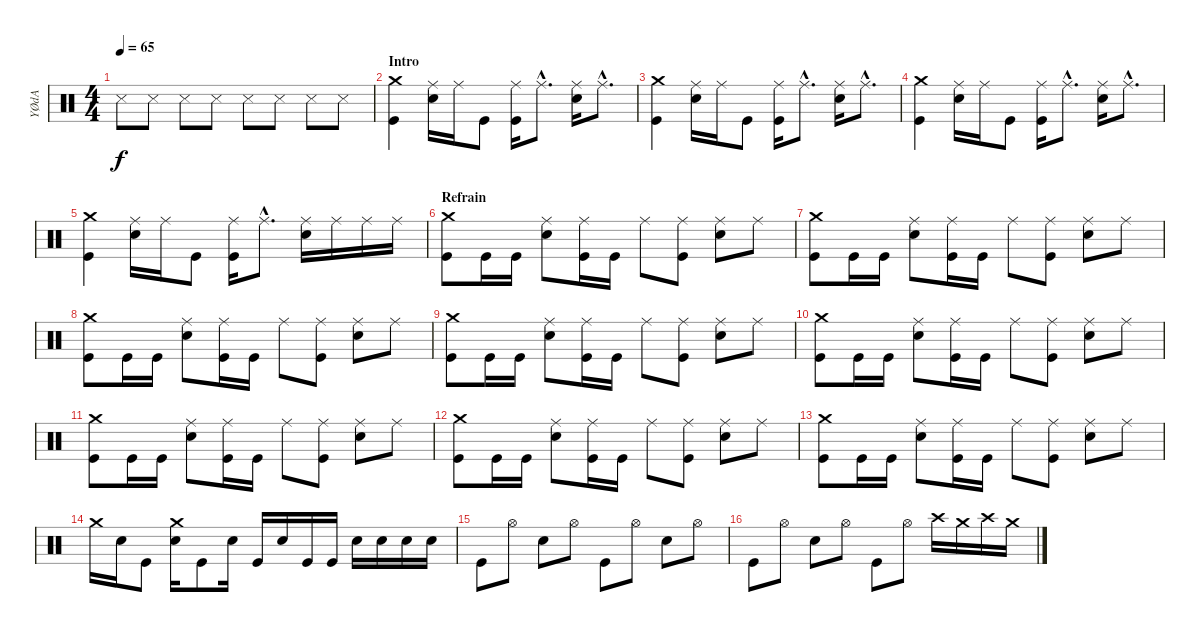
\track ("YØdA" "YØdA") {instrument percussion}
\staff {score}
\articulation defaults
\ts (4 4)
\tempo 65
\clef neutral
\ks c "Snare (side stick) 3".8{dy f} "Snare (side stick) 3".8 "Snare (side stick) 3".8 "Snare (side stick) 3".8 "Snare (side stick) 3".8 "Snare (side stick) 3".8 "Snare (side stick) 3".8 "Snare (side stick) 3".8
|
\section ("" "Intro")
("Crash medium (hit)" "Kick (hit)").4 ("Ride (middle)" "Electric Snare (hit)").16 "Ride (middle)".16 "Kick (hit)".8 ("Ride (middle)" "Kick (hit)").16 "Ride (middle)"{hac}.8{d} ("Ride (middle)" "Electric Snare (hit)").16 "Ride (middle)"{hac}.8{d} |
("Crash medium (hit)" "Kick (hit)").4 ("Ride (middle)" "Electric Snare (hit)").16 "Ride (middle)".16 "Kick (hit)".8 ("Ride (middle)" "Kick (hit)").16 "Ride (middle)"{hac}.8{d} ("Ride (middle)" "Electric Snare (hit)").16 "Ride (middle)"{hac}.8{d} |
("Crash medium (hit)" "Kick (hit)").4 ("Ride (middle)" "Electric Snare (hit)").16 "Ride (middle)".16 "Kick (hit)".8 ("Ride (middle)" "Kick (hit)").16 "Ride (middle)"{hac}.8{d} ("Ride (middle)" "Electric Snare (hit)").16 "Ride (middle)"{hac}.8{d} |
("Crash medium (hit)" "Kick (hit)").4 ("Ride (middle)" "Electric Snare (hit)").16 "Ride (middle)".16 "Kick (hit)".8 ("Ride (middle)" "Kick (hit)").16 "Ride (middle)"{hac}.8{d} ("Ride (middle)" "Electric Snare (hit)").16 "Ride (middle)".16 "Ride (middle)".16 "Ride (middle)".16 |
\section ("" "Refrain")
("Crash medium (hit)" "Kick (hit)").8 "Kick (hit)".16 "Kick (hit)".16 ("Ride (middle)" "Electric Snare (hit)").8 ("Ride (middle)" "Kick (hit)").16 "Kick (hit)".16 "Ride (middle)".8 ("Ride (middle)" "Kick (hit)").8 ("Ride (middle)" "Electric Snare (hit)").8 "Ride (middle)".8 |
("Crash medium (hit)" "Kick (hit)").8 "Kick (hit)".16 "Kick (hit)".16 ("Ride (middle)" "Electric Snare (hit)").8 ("Ride (middle)" "Kick (hit)").16 "Kick (hit)".16 "Ride (middle)".8 ("Ride (middle)" "Kick (hit)").8 ("Ride (middle)" "Electric Snare (hit)").8 "Ride (middle)".8 |
("Crash medium (hit)" "Kick (hit)").8 "Kick (hit)".16 "Kick (hit)".16 ("Ride (middle)" "Electric Snare (hit)").8 ("Ride (middle)" "Kick (hit)").16 "Kick (hit)".16 "Ride (middle)".8 ("Ride (middle)" "Kick (hit)").8 ("Ride (middle)" "Electric Snare (hit)").8 "Ride (middle)".8 |
("Crash medium (hit)" "Kick (hit)").8 "Kick (hit)".16 "Kick (hit)".16 ("Ride (middle)" "Electric Snare (hit)").8 ("Ride (middle)" "Kick (hit)").16 "Kick (hit)".16 "Ride (middle)".8 ("Ride (middle)" "Kick (hit)").8 ("Ride (middle)" "Electric Snare (hit)").8 "Ride (middle)".8 |
("Crash medium (hit)" "Kick (hit)").8 "Kick (hit)".16 "Kick (hit)".16 ("Ride (middle)" "Electric Snare (hit)").8 ("Ride (middle)" "Kick (hit)").16 "Kick (hit)".16 "Ride (middle)".8 ("Ride (middle)" "Kick (hit)").8 ("Ride (middle)" "Electric Snare (hit)").8 "Ride (middle)".8 |
("Crash medium (hit)" "Kick (hit)").8 "Kick (hit)".16 "Kick (hit)".16 ("Ride (middle)" "Electric Snare (hit)").8 ("Ride (middle)" "Kick (hit)").16 "Kick (hit)".16 "Ride (middle)".8 ("Ride (middle)" "Kick (hit)").8 ("Ride (middle)" "Electric Snare (hit)").8 "Ride (middle)".8 |
("Crash medium (hit)" "Kick (hit)").8 "Kick (hit)".16 "Kick (hit)".16 ("Ride (middle)" "Electric Snare (hit)").8 ("Ride (middle)" "Kick (hit)").16 "Kick (hit)".16 "Ride (middle)".8 ("Ride (middle)" "Kick (hit)").8 ("Ride (middle)" "Electric Snare (hit)").8 "Ride (middle)".8 |
("Crash medium (hit)" "Kick (hit)").8 "Kick (hit)".16 "Kick (hit)".16 ("Ride (middle)" "Electric Snare (hit)").8 ("Ride (middle)" "Kick (hit)").16 "Kick (hit)".16 "Ride (middle)".8 ("Ride (middle)" "Kick (hit)").8 ("Ride (middle)" "Electric Snare (hit)").8 "Ride (middle)".8 |
"Crash medium (hit)".16 "Electric Snare (hit)".16 "Kick (hit)".8 ("Crash medium (hit)" "Electric Snare (hit)").16 "Kick (hit)".8 "Electric Snare (hit)".16 "Kick (hit)".16 "Electric Snare (hit)".16 "Kick (hit)".16 "Kick (hit)".16 "Electric Snare (hit)".16 "Electric Snare (hit)".16 "Electric Snare (hit)".16 "Electric Snare (hit)".16 |
"Kick (hit)".8 "Hi-Hat (open)".8 "Electric Snare (hit)".8 "Hi-Hat (open)".8 "Kick (hit)".8 "Hi-Hat (open)".8 "Electric Snare (hit)".8 "Hi-Hat (open)".8 |
"Kick (hit)".8 "Hi-Hat (open)".8 "Electric Snare (hit)".8 "Hi-Hat (open)".8 "Kick (hit)".8 "Hi-Hat (open)".8 "Crash high (hit)".16 "Crash medium (hit)".16 "Crash high (hit)".16 "Crash medium (hit)".16
